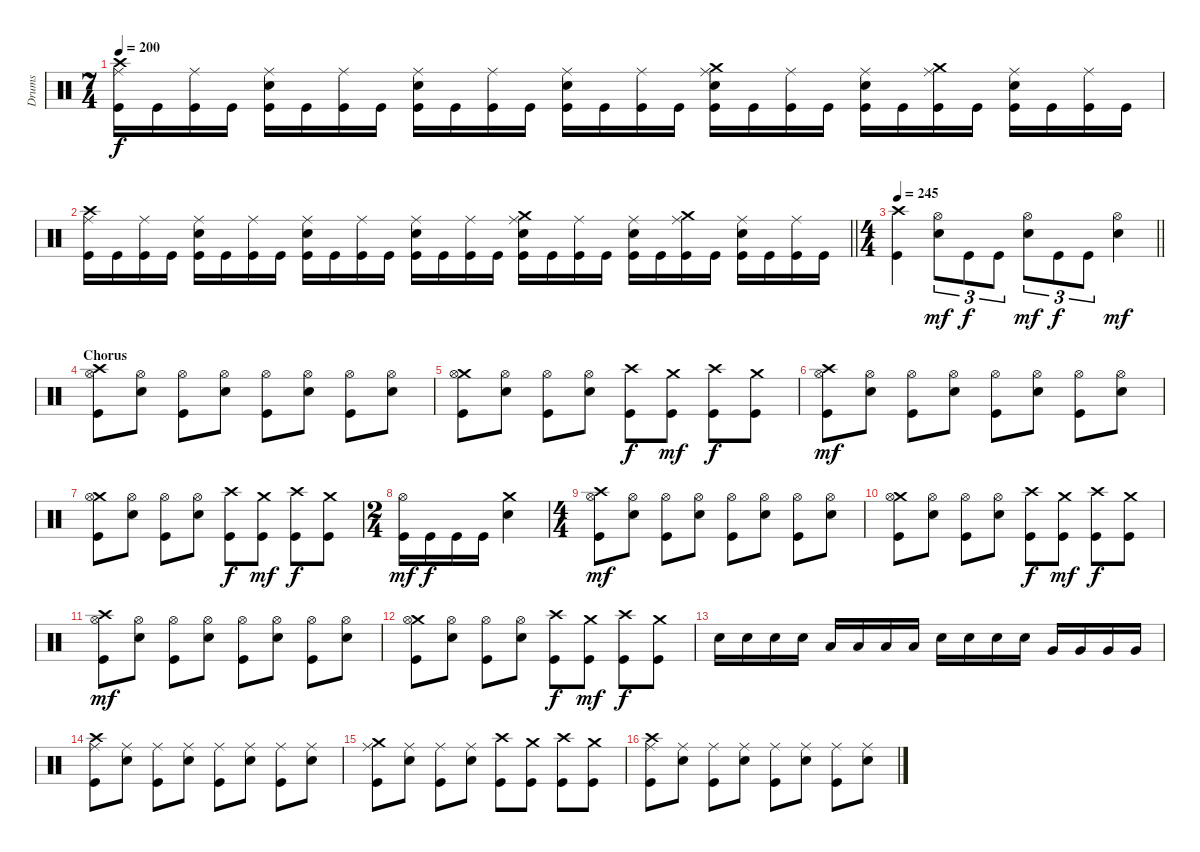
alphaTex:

\track ("Drums" "Drums") {instrument percussion}
\staff {score}
\articulation defaults
\ts (7 4)
\tempo 200
\clef neutral
\ks c
("Crash high (hit)" "Ride (middle)" "Kick (hit)").16{dy f} "Kick (hit)".16 ("Ride (middle)" "Kick (hit)").16 "Kick (hit)".16 ("Ride (middle)" "Electric Snare (hit)" "Kick (hit)").16 "Kick (hit)".16 ("Ride (middle)" "Kick (hit)").16 "Kick (hit)".16 ("Ride (middle)" "Electric Snare (hit)" "Kick (hit)").16 "Kick (hit)".16 ("Ride (middle)" "Kick (hit)").16 "Kick (hit)".16 ("Ride (middle)" "Electric Snare (hit)" "Kick (hit)").16 "Kick (hit)".16 ("Ride (middle)" "Kick (hit)").16 "Kick (hit)".16 ("Crash medium (hit)" "Ride (middle)" "Electric Snare (hit)" "Kick (hit)").16 "Kick (hit)".16 ("Ride (middle)" "Kick (hit)").16 "Kick (hit)".16 ("Ride (middle)" "Electric Snare (hit)" "Kick (hit)").16 "Kick (hit)".16 ("Crash medium (hit)" "Ride (middle)" "Kick (hit)").16 "Kick (hit)".16 ("Ride (middle)" "Electric Snare (hit)" "Kick (hit)").16 "Kick (hit)".16 ("Ride (middle)" "Kick (hit)").16 "Kick (hit)".16 |
\barLineRight lightlight
("Crash high (hit)" "Ride (middle)" "Kick (hit)").16 "Kick (hit)".16 ("Ride (middle)" "Kick (hit)").16 "Kick (hit)".16 ("Ride (middle)" "Electric Snare (hit)" "Kick (hit)").16 "Kick (hit)".16 ("Ride (middle)" "Kick (hit)").16 "Kick (hit)".16 ("Ride (middle)" "Electric Snare (hit)" "Kick (hit)").16 "Kick (hit)".16 ("Ride (middle)" "Kick (hit)").16 "Kick (hit)".16 ("Ride (middle)" "Electric Snare (hit)" "Kick (hit)").16 "Kick (hit)".16 ("Ride (middle)" "Kick (hit)").16 "Kick (hit)".16 ("Crash medium (hit)" "Ride (middle)" "Electric Snare (hit)" "Kick (hit)").16 "Kick (hit)".16 ("Ride (middle)" "Kick (hit)").16 "Kick (hit)".16 ("Ride (middle)" "Electric Snare (hit)" "Kick (hit)").16 "Kick (hit)".16 ("Crash medium (hit)" "Ride (middle)" "Kick (hit)").16 "Kick (hit)".16 ("Ride (middle)" "Electric Snare (hit)" "Kick (hit)").16 "Kick (hit)".16 ("Ride (middle)" "Kick (hit)").16 "Kick (hit)".16 |
\ts (4 4)
\section ("" "")
\tempo 245
\barLineRight lightlight
("Crash high (hit)" "Kick (hit)").4 ("Hi-Hat (open)" "Electric Snare (hit)").8{tu (3 2) dy mf} "Kick (hit)".8{tu (3 2) dy f} "Kick (hit)".8{tu (3 2)} ("Hi-Hat (open)" "Electric Snare (hit)").8{tu (3 2) dy mf} "Kick (hit)".8{tu (3 2) dy f} "Kick (hit)".8{tu (3 2)} ("Hi-Hat (open)" "Electric Snare (hit)").4{dy mf} |
\section ("" "Chorus")
("Crash high (hit)" "Hi-Hat (open)" "Kick (hit)").8 ("Hi-Hat (open)" "Electric Snare (hit)").8 ("Hi-Hat (open)" "Kick (hit)").8 ("Hi-Hat (open)" "Electric Snare (hit)").8 ("Hi-Hat (open)" "Kick (hit)").8 ("Hi-Hat (open)" "Electric Snare (hit)").8 ("Hi-Hat (open)" "Kick (hit)").8 ("Hi-Hat (open)" "Electric Snare (hit)").8 |
("Crash medium (hit)" "Hi-Hat (open)" "Kick (hit)").8 ("Hi-Hat (open)" "Electric Snare (hit)").8 ("Hi-Hat (open)" "Kick (hit)").8 ("Hi-Hat (open)" "Electric Snare (hit)").8 ("Crash high (hit)" "Kick (hit)").8{dy f} ("Crash medium (hit)" "Kick (hit)").8{dy mf} ("Crash high (hit)" "Kick (hit)").8{dy f} ("Crash medium (hit)" "Kick (hit)").8 |
("Crash high (hit)" "Hi-Hat (open)" "Kick (hit)").8{dy mf} ("Hi-Hat (open)" "Electric Snare (hit)").8 ("Hi-Hat (open)" "Kick (hit)").8 ("Hi-Hat (open)" "Electric Snare (hit)").8 ("Hi-Hat (open)" "Kick (hit)").8 ("Hi-Hat (open)" "Electric Snare (hit)").8 ("Hi-Hat (open)" "Kick (hit)").8 ("Hi-Hat (open)" "Electric Snare (hit)").8 |
("Crash medium (hit)" "Hi-Hat (open)" "Kick (hit)").8 ("Hi-Hat (open)" "Electric Snare (hit)").8 ("Hi-Hat (open)" "Kick (hit)").8 ("Hi-Hat (open)" "Electric Snare (hit)").8 ("Crash high (hit)" "Kick (hit)").8{dy f} ("Crash medium (hit)" "Kick (hit)").8{dy mf} ("Crash high (hit)" "Kick (hit)").8{dy f} ("Crash medium (hit)" "Kick (hit)").8 |
\ts (2 4)
("Hi-Hat (open)" "Kick (hit)").16{dy mf} "Kick (hit)".16{dy f} "Kick (hit)".16 "Kick (hit)".16 ("Crash medium (hit)" "Electric Snare (hit)").4 |
\ts (4 4)
("Crash high (hit)" "Hi-Hat (open)" "Kick (hit)").8{dy mf} ("Hi-Hat (open)" "Electric Snare (hit)").8 ("Hi-Hat (open)" "Kick (hit)").8 ("Hi-Hat (open)" "Electric Snare (hit)").8 ("Hi-Hat (open)" "Kick (hit)").8 ("Hi-Hat (open)" "Electric Snare (hit)").8 ("Hi-Hat (open)" "Kick (hit)").8 ("Hi-Hat (open)" "Electric Snare (hit)").8 |
("Crash medium (hit)" "Hi-Hat (open)" "Kick (hit)").8 ("Hi-Hat (open)" "Electric Snare (hit)").8 ("Hi-Hat (open)" "Kick (hit)").8 ("Hi-Hat (open)" "Electric Snare (hit)").8 ("Crash high (hit)" "Kick (hit)").8{dy f} ("Crash medium (hit)" "Kick (hit)").8{dy mf} ("Crash high (hit)" "Kick (hit)").8{dy f} ("Crash medium (hit)" "Kick (hit)").8 |
("Crash high (hit)" "Hi-Hat (open)" "Kick (hit)").8{dy mf} ("Hi-Hat (open)" "Electric Snare (hit)").8 ("Hi-Hat (open)" "Kick (hit)").8 ("Hi-Hat (open)" "Electric Snare (hit)").8 ("Hi-Hat (open)" "Kick (hit)").8 ("Hi-Hat (open)" "Electric Snare (hit)").8 ("Hi-Hat (open)" "Kick (hit)").8 ("Hi-Hat (open)" "Electric Snare (hit)").8 |
("Crash medium (hit)" "Hi-Hat (open)" "Kick (hit)").8 ("Hi-Hat (open)" "Electric Snare (hit)").8 ("Hi-Hat (open)" "Kick (hit)").8 ("Hi-Hat (open)" "Electric Snare (hit)").8 ("Crash high (hit)" "Kick (hit)").8{dy f} ("Crash medium (hit)" "Kick (hit)").8{dy mf} ("Crash high (hit)" "Kick (hit)").8{dy f} ("Crash medium (hit)" "Kick (hit)").8 |
"Electric Snare (hit)".16 "Electric Snare (hit)".16 "Electric Snare (hit)".16 "Electric Snare (hit)".16 "Low Tom (hit)".16 "Low Tom (hit)".16 "Low Tom (hit)".16 "Low Tom (hit)".16 "Electric Snare (hit)".16 "Electric Snare (hit)".16 "Electric Snare (hit)".16 "Electric Snare (hit)".16 "Very Low Tom (hit)".16 "Very Low Tom (hit)".16 "Very Low Tom (hit)".16 "Very Low Tom (hit)".16 |
("Crash high (hit)" "Ride (middle)" "Kick (hit)").8 ("Ride (middle)" "Electric Snare (hit)").8 ("Ride (middle)" "Kick (hit)").8 ("Ride (middle)" "Electric Snare (hit)").8 ("Ride (middle)" "Kick (hit)").8 ("Ride (middle)" "Electric Snare (hit)").8 ("Ride (middle)" "Kick (hit)").8 ("Ride (middle)" "Electric Snare (hit)").8 |
("Crash medium (hit)" "Ride (middle)" "Kick (hit)").8 ("Ride (middle)" "Electric Snare (hit)").8 ("Ride (middle)" "Kick (hit)").8 ("Ride (middle)" "Electric Snare (hit)").8 ("Crash high (hit)" "Kick (hit)").8 ("Crash medium (hit)" "Kick (hit)").8 ("Crash high (hit)" "Kick (hit)").8 ("Crash medium (hit)" "Kick (hit)").8 |
("Crash high (hit)" "Ride (middle)" "Kick (hit)").8 ("Ride (middle)" "Electric Snare (hit)").8 ("Ride (middle)" "Kick (hit)").8 ("Ride (middle)" "Electric Snare (hit)").8 ("Ride (middle)" "Kick (hit)").8 ("Ride (middle)" "Electric Snare (hit)").8 ("Ride (middle)" "Kick (hit)").8 ("Ride (middle)" "Electric Snare (hit)").8
